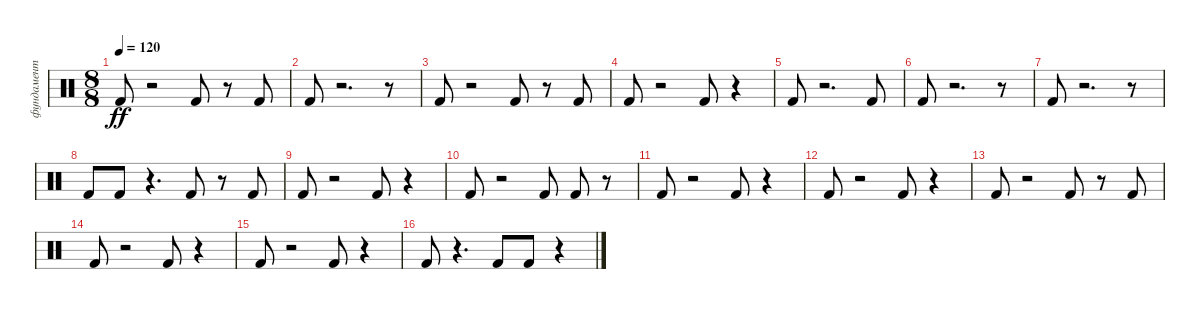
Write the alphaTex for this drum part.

\track ("фундамент" "фундамент") {instrument percussion}
\staff {score}
\articulation defaults
\ts (8 8)
\tempo 120
\clef neutral
\ks c "Kick (hit) 2".8{dy ff}
r.2 "Kick (hit) 2".8 r.8 "Kick (hit) 2".8 |
"Kick (hit) 2".8 r.2{d} r.8 |
"Kick (hit) 2".8 r.2 "Kick (hit) 2".8 r.8 "Kick (hit) 2".8 |
"Kick (hit) 2".8 r.2 "Kick (hit) 2".8 r.4 |
"Kick (hit) 2".8 r.2{d} "Kick (hit) 2".8 |
"Kick (hit) 2".8 r.2{d} r.8 |
"Kick (hit) 2".8 r.2{d} r.8 |
"Kick (hit) 2".8 "Kick (hit) 2".8 r.4{d} "Kick (hit) 2".8 r.8 "Kick (hit) 2".8 |
"Kick (hit) 2".8 r.2 "Kick (hit) 2".8 r.4 |
"Kick (hit) 2".8 r.2 "Kick (hit) 2".8 "Kick (hit) 2".8 r.8 |
"Kick (hit) 2".8 r.2 "Kick (hit) 2".8 r.4 |
"Kick (hit) 2".8 r.2 "Kick (hit) 2".8 r.4 |
"Kick (hit) 2".8 r.2 "Kick (hit) 2".8 r.8 "Kick (hit) 2".8 |
"Kick (hit) 2".8 r.2 "Kick (hit) 2".8 r.4 |
"Kick (hit) 2".8 r.2 "Kick (hit) 2".8 r.4 |
"Kick (hit) 2".8 r.4{d} "Kick (hit) 2".8 "Kick (hit) 2".8 r.4
